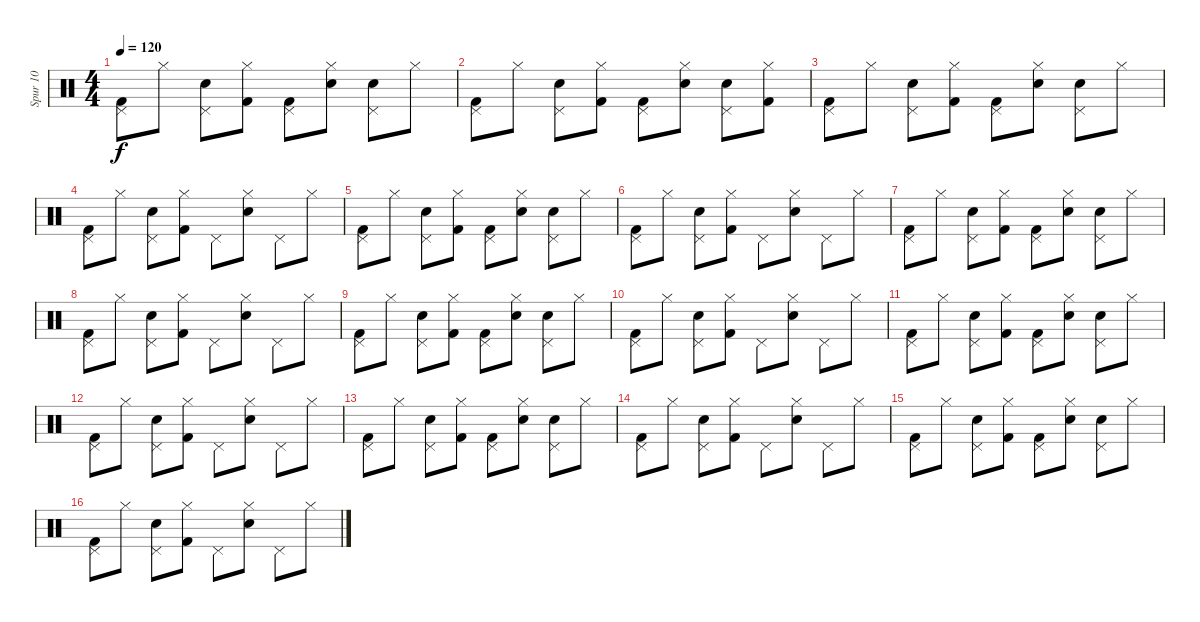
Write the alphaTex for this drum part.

\track ("Spur 10" "Spur 10") {instrument percussion}
\staff {score}
\articulation defaults
\ts (4 4)
\tempo 120
\clef neutral
\ks c
("Pedal Hi-Hat (hit)" "Kick (hit) 2").8{dy f} "Hi-Hat (closed)".8 ("Pedal Hi-Hat (hit)" "Snare (hit) 2").8 ("Hi-Hat (closed)" "Kick (hit) 2").8 ("Pedal Hi-Hat (hit)" "Kick (hit) 2").8 ("Hi-Hat (closed)" "Snare (hit) 2").8 ("Pedal Hi-Hat (hit)" "Snare (hit) 2").8 "Hi-Hat (closed)".8 |
("Pedal Hi-Hat (hit)" "Kick (hit) 2").8 "Hi-Hat (closed)".8 ("Pedal Hi-Hat (hit)" "Snare (hit) 2").8 ("Hi-Hat (closed)" "Kick (hit) 2").8 ("Pedal Hi-Hat (hit)" "Kick (hit) 2").8 ("Hi-Hat (closed)" "Snare (hit) 2").8 ("Pedal Hi-Hat (hit)" "Snare (hit) 2").8 ("Kick (hit) 2" "Hi-Hat (closed)").8 |
("Pedal Hi-Hat (hit)" "Kick (hit) 2").8 "Hi-Hat (closed)".8 ("Pedal Hi-Hat (hit)" "Snare (hit) 2").8 ("Hi-Hat (closed)" "Kick (hit) 2").8 ("Pedal Hi-Hat (hit)" "Kick (hit) 2").8 ("Hi-Hat (closed)" "Snare (hit) 2").8 ("Pedal Hi-Hat (hit)" "Snare (hit) 2").8 "Hi-Hat (closed)".8 |
("Pedal Hi-Hat (hit)" "Kick (hit) 2").8 "Hi-Hat (closed)".8 ("Pedal Hi-Hat (hit)" "Snare (hit) 2").8 ("Hi-Hat (closed)" "Kick (hit) 2").8 "Pedal Hi-Hat (hit)".8 ("Hi-Hat (closed)" "Snare (hit) 2").8 "Pedal Hi-Hat (hit)".8 "Hi-Hat (closed)".8 |
("Pedal Hi-Hat (hit)" "Kick (hit) 2").8 "Hi-Hat (closed)".8 ("Pedal Hi-Hat (hit)" "Snare (hit) 2").8 ("Hi-Hat (closed)" "Kick (hit) 2").8 ("Pedal Hi-Hat (hit)" "Kick (hit) 2").8 ("Hi-Hat (closed)" "Snare (hit) 2").8 ("Pedal Hi-Hat (hit)" "Snare (hit) 2").8 "Hi-Hat (closed)".8 |
("Pedal Hi-Hat (hit)" "Kick (hit) 2").8 "Hi-Hat (closed)".8 ("Pedal Hi-Hat (hit)" "Snare (hit) 2").8 ("Hi-Hat (closed)" "Kick (hit) 2").8 "Pedal Hi-Hat (hit)".8 ("Hi-Hat (closed)" "Snare (hit) 2").8 "Pedal Hi-Hat (hit)".8 "Hi-Hat (closed)".8 |
("Pedal Hi-Hat (hit)" "Kick (hit) 2").8 "Hi-Hat (closed)".8 ("Pedal Hi-Hat (hit)" "Snare (hit) 2").8 ("Hi-Hat (closed)" "Kick (hit) 2").8 ("Pedal Hi-Hat (hit)" "Kick (hit) 2").8 ("Hi-Hat (closed)" "Snare (hit) 2").8 ("Pedal Hi-Hat (hit)" "Snare (hit) 2").8 "Hi-Hat (closed)".8 |
("Pedal Hi-Hat (hit)" "Kick (hit) 2").8 "Hi-Hat (closed)".8 ("Pedal Hi-Hat (hit)" "Snare (hit) 2").8 ("Hi-Hat (closed)" "Kick (hit) 2").8 "Pedal Hi-Hat (hit)".8 ("Hi-Hat (closed)" "Snare (hit) 2").8 "Pedal Hi-Hat (hit)".8 "Hi-Hat (closed)".8 |
("Pedal Hi-Hat (hit)" "Kick (hit) 2").8 "Hi-Hat (closed)".8 ("Pedal Hi-Hat (hit)" "Snare (hit) 2").8 ("Hi-Hat (closed)" "Kick (hit) 2").8 ("Pedal Hi-Hat (hit)" "Kick (hit) 2").8 ("Hi-Hat (closed)" "Snare (hit) 2").8 ("Pedal Hi-Hat (hit)" "Snare (hit) 2").8 "Hi-Hat (closed)".8 |
("Pedal Hi-Hat (hit)" "Kick (hit) 2").8 "Hi-Hat (closed)".8 ("Pedal Hi-Hat (hit)" "Snare (hit) 2").8 ("Hi-Hat (closed)" "Kick (hit) 2").8 "Pedal Hi-Hat (hit)".8 ("Hi-Hat (closed)" "Snare (hit) 2").8 "Pedal Hi-Hat (hit)".8 "Hi-Hat (closed)".8 |
("Pedal Hi-Hat (hit)" "Kick (hit) 2").8 "Hi-Hat (closed)".8 ("Pedal Hi-Hat (hit)" "Snare (hit) 2").8 ("Hi-Hat (closed)" "Kick (hit) 2").8 ("Pedal Hi-Hat (hit)" "Kick (hit) 2").8 ("Hi-Hat (closed)" "Snare (hit) 2").8 ("Pedal Hi-Hat (hit)" "Snare (hit) 2").8 "Hi-Hat (closed)".8 |
("Pedal Hi-Hat (hit)" "Kick (hit) 2").8 "Hi-Hat (closed)".8 ("Pedal Hi-Hat (hit)" "Snare (hit) 2").8 ("Hi-Hat (closed)" "Kick (hit) 2").8 "Pedal Hi-Hat (hit)".8 ("Hi-Hat (closed)" "Snare (hit) 2").8 "Pedal Hi-Hat (hit)".8 "Hi-Hat (closed)".8 |
("Pedal Hi-Hat (hit)" "Kick (hit) 2").8 "Hi-Hat (closed)".8 ("Pedal Hi-Hat (hit)" "Snare (hit) 2").8 ("Hi-Hat (closed)" "Kick (hit) 2").8 ("Pedal Hi-Hat (hit)" "Kick (hit) 2").8 ("Hi-Hat (closed)" "Snare (hit) 2").8 ("Pedal Hi-Hat (hit)" "Snare (hit) 2").8 "Hi-Hat (closed)".8 |
("Pedal Hi-Hat (hit)" "Kick (hit) 2").8 "Hi-Hat (closed)".8 ("Pedal Hi-Hat (hit)" "Snare (hit) 2").8 ("Hi-Hat (closed)" "Kick (hit) 2").8 "Pedal Hi-Hat (hit)".8 ("Hi-Hat (closed)" "Snare (hit) 2").8 "Pedal Hi-Hat (hit)".8 "Hi-Hat (closed)".8 |
("Pedal Hi-Hat (hit)" "Kick (hit) 2").8 "Hi-Hat (closed)".8 ("Pedal Hi-Hat (hit)" "Snare (hit) 2").8 ("Hi-Hat (closed)" "Kick (hit) 2").8 ("Pedal Hi-Hat (hit)" "Kick (hit) 2").8 ("Hi-Hat (closed)" "Snare (hit) 2").8 ("Pedal Hi-Hat (hit)" "Snare (hit) 2").8 "Hi-Hat (closed)".8 |
("Pedal Hi-Hat (hit)" "Kick (hit) 2").8 "Hi-Hat (closed)".8 ("Pedal Hi-Hat (hit)" "Snare (hit) 2").8 ("Hi-Hat (closed)" "Kick (hit) 2").8 "Pedal Hi-Hat (hit)".8 ("Hi-Hat (closed)" "Snare (hit) 2").8 "Pedal Hi-Hat (hit)".8 "Hi-Hat (closed)".8
